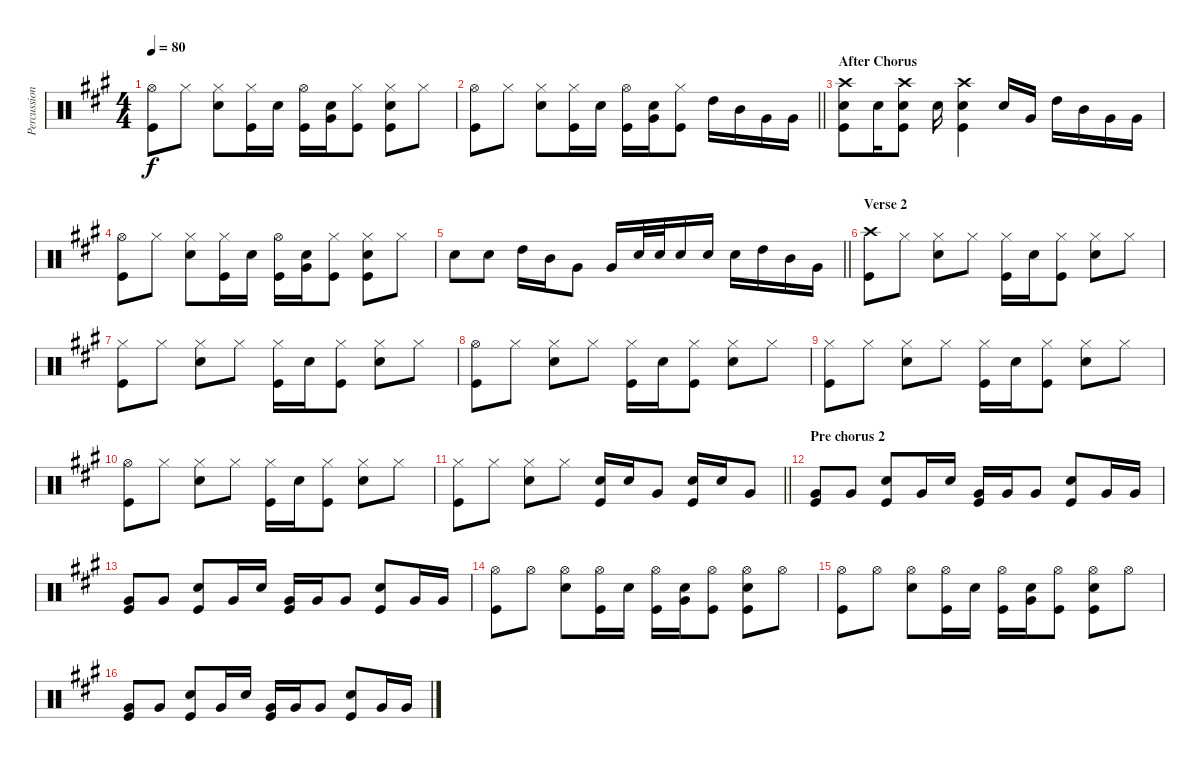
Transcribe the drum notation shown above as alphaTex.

\track ("Percussion" "Percussion") {instrument percussion bank 47}
\staff {score}
\articulation defaults
\ts (4 4)
\tempo 80
\clef neutral
\ks a
("Hi-Hat (open)" "Kick (hit)").8{dy f} "Hi-Hat (closed)".8 ("Hi-Hat (closed)" "Snare (hit) 2").8 ("Hi-Hat (closed)" "Kick (hit)").16 "Snare (hit) 2".16 ("Hi-Hat (open)" "Kick (hit)").16 ("Very Low Tom (hit)" "Snare (hit) 2").16 ("Hi-Hat (closed)" "Kick (hit)").8 ("Hi-Hat (closed)" "Snare (hit) 2" "Kick (hit)").8 "Hi-Hat (closed)".8 |
\barLineRight lightlight
("Hi-Hat (open)" "Kick (hit)").8 "Hi-Hat (closed)".8 ("Hi-Hat (closed)" "Snare (hit) 2").8 ("Hi-Hat (closed)" "Kick (hit)").16 "Snare (hit) 2".16 ("Hi-Hat (open)" "Kick (hit)").16 ("Very Low Tom (hit)" "Snare (hit) 2").16 ("Hi-Hat (closed)" "Kick (hit)").8 "High Tom (hit)".16 "Mid Tom (hit)".16 "Very Low Tom (hit)".16 "Very Low Tom (hit)".16 |
\section ("" "After Chorus")
("Crash high (hit)" "Snare (hit) 2" "Kick (hit)").8 "Snare (hit) 2".16 ("Crash high (hit)" "Snare (hit) 2" "Kick (hit)").8 "Snare (hit) 2".16 ("Crash high (hit)" "Snare (hit) 2" "Kick (hit)").4 "Snare (hit) 2".16 "Very Low Tom (hit)".16 "High Tom (hit)".16 "Mid Tom (hit)".16 "Very Low Tom (hit)".16 "Very Low Tom (hit)".16 |
("Hi-Hat (open)" "Kick (hit)").8 "Hi-Hat (closed)".8 ("Hi-Hat (closed)" "Snare (hit) 2").8 ("Hi-Hat (closed)" "Kick (hit)").16 "Snare (hit) 2".16 ("Hi-Hat (open)" "Kick (hit)").16 ("Very Low Tom (hit)" "Snare (hit) 2").16 ("Hi-Hat (closed)" "Kick (hit)").8 ("Hi-Hat (closed)" "Snare (hit) 2" "Kick (hit)").8 "Hi-Hat (closed)".8 |
\barLineRight lightlight "Snare (hit) 2".8 "Snare (hit) 2".8 "High Tom (hit)".16 "Mid Tom (hit)".16 "Very Low Tom (hit)".8 "Very Low Tom (hit)".16 "Snare (hit) 2".32 "Snare (hit) 2".32 "Snare (hit) 2".16 "Snare (hit) 2".16 "Snare (hit) 2".16 "High Tom (hit)".16 "Mid Tom (hit)".16 "Very Low Tom (hit)".16
|
\section ("" "Verse 2")
("Crash high (hit)" "Kick (hit)").8 "Hi-Hat (closed)".8 ("Hi-Hat (closed)" "Snare (hit) 2").8 "Hi-Hat (closed)".8 ("Hi-Hat (closed)" "Kick (hit)").16 "Snare (hit) 2".16 ("Hi-Hat (closed)" "Kick (hit)").8 ("Hi-Hat (closed)" "Snare (hit) 2").8 "Hi-Hat (closed)".8 |
("Hi-Hat (closed)" "Kick (hit)").8 "Hi-Hat (closed)".8 ("Hi-Hat (closed)" "Snare (hit) 2").8 "Hi-Hat (closed)".8 ("Hi-Hat (closed)" "Kick (hit)").16 "Snare (hit) 2".16 ("Hi-Hat (closed)" "Kick (hit)").8 ("Hi-Hat (closed)" "Snare (hit) 2").8 "Hi-Hat (closed)".8 |
("Hi-Hat (open)" "Kick (hit)").8 "Hi-Hat (closed)".8 ("Hi-Hat (closed)" "Snare (hit) 2").8 "Hi-Hat (closed)".8 ("Hi-Hat (closed)" "Kick (hit)").16 "Snare (hit) 2".16 ("Hi-Hat (closed)" "Kick (hit)").8 ("Hi-Hat (closed)" "Snare (hit) 2").8 "Hi-Hat (closed)".8 |
("Hi-Hat (closed)" "Kick (hit)").8 "Hi-Hat (closed)".8 ("Hi-Hat (closed)" "Snare (hit) 2").8 "Hi-Hat (closed)".8 ("Hi-Hat (closed)" "Kick (hit)").16 "Snare (hit) 2".16 ("Hi-Hat (closed)" "Kick (hit)").8 ("Hi-Hat (closed)" "Snare (hit) 2").8 "Hi-Hat (closed)".8 |
("Hi-Hat (open)" "Kick (hit)").8 "Hi-Hat (closed)".8 ("Hi-Hat (closed)" "Snare (hit) 2").8 "Hi-Hat (closed)".8 ("Hi-Hat (closed)" "Kick (hit)").16 "Snare (hit) 2".16 ("Hi-Hat (closed)" "Kick (hit)").8 ("Hi-Hat (closed)" "Snare (hit) 2").8 "Hi-Hat (closed)".8 |
\barLineRight lightlight
("Hi-Hat (closed)" "Kick (hit)").8 "Hi-Hat (closed)".8 ("Hi-Hat (closed)" "Snare (hit) 2").8 "Hi-Hat (closed)".8 ("Snare (hit) 2" "Kick (hit)").16 "Snare (hit) 2".16 "Very Low Tom (hit)".8 ("Snare (hit) 2" "Kick (hit)").16 "Snare (hit) 2".16 "Very Low Tom (hit)".8 |
\section ("" "Pre chorus 2")
("Very Low Tom (hit)" "Kick (hit)").8 "Very Low Tom (hit)".8 ("Snare (hit) 2" "Kick (hit)").8 "Very Low Tom (hit)".16 "Snare (hit) 2".16 ("Very Low Tom (hit)" "Kick (hit)").16 "Very Low Tom (hit)".16 "Very Low Tom (hit)".8 ("Snare (hit) 2" "Kick (hit)").8 "Very Low Tom (hit)".16 "Very Low Tom (hit)".16 |
("Very Low Tom (hit)" "Kick (hit)").8 "Very Low Tom (hit)".8 ("Snare (hit) 2" "Kick (hit)").8 "Very Low Tom (hit)".16 "Snare (hit) 2".16 ("Very Low Tom (hit)" "Kick (hit)").16 "Very Low Tom (hit)".16 "Very Low Tom (hit)".8 ("Snare (hit) 2" "Kick (hit)").8 "Very Low Tom (hit)".16 "Very Low Tom (hit)".16 |
("Hi-Hat (open)" "Kick (hit)").8 "Hi-Hat (open)".8 ("Hi-Hat (open)" "Snare (hit) 2").8 ("Hi-Hat (open)" "Kick (hit)").16 "Snare (hit) 2".16 ("Hi-Hat (open)" "Kick (hit)").16 ("Very Low Tom (hit)" "Snare (hit) 2").16 ("Hi-Hat (open)" "Kick (hit)").8 ("Hi-Hat (open)" "Snare (hit) 2" "Kick (hit)").8 "Hi-Hat (open)".8 |
("Hi-Hat (open)" "Kick (hit)").8 "Hi-Hat (open)".8 ("Hi-Hat (open)" "Snare (hit) 2").8 ("Hi-Hat (open)" "Kick (hit)").16 "Snare (hit) 2".16 ("Hi-Hat (open)" "Kick (hit)").16 ("Very Low Tom (hit)" "Snare (hit) 2").16 ("Hi-Hat (open)" "Kick (hit)").8 ("Hi-Hat (open)" "Snare (hit) 2" "Kick (hit)").8 "Hi-Hat (open)".8 |
("Very Low Tom (hit)" "Kick (hit)").8 "Very Low Tom (hit)".8 ("Snare (hit) 2" "Kick (hit)").8 "Very Low Tom (hit)".16 "Snare (hit) 2".16 ("Very Low Tom (hit)" "Kick (hit)").16 "Very Low Tom (hit)".16 "Very Low Tom (hit)".8 ("Snare (hit) 2" "Kick (hit)").8 "Very Low Tom (hit)".16 "Very Low Tom (hit)".16
